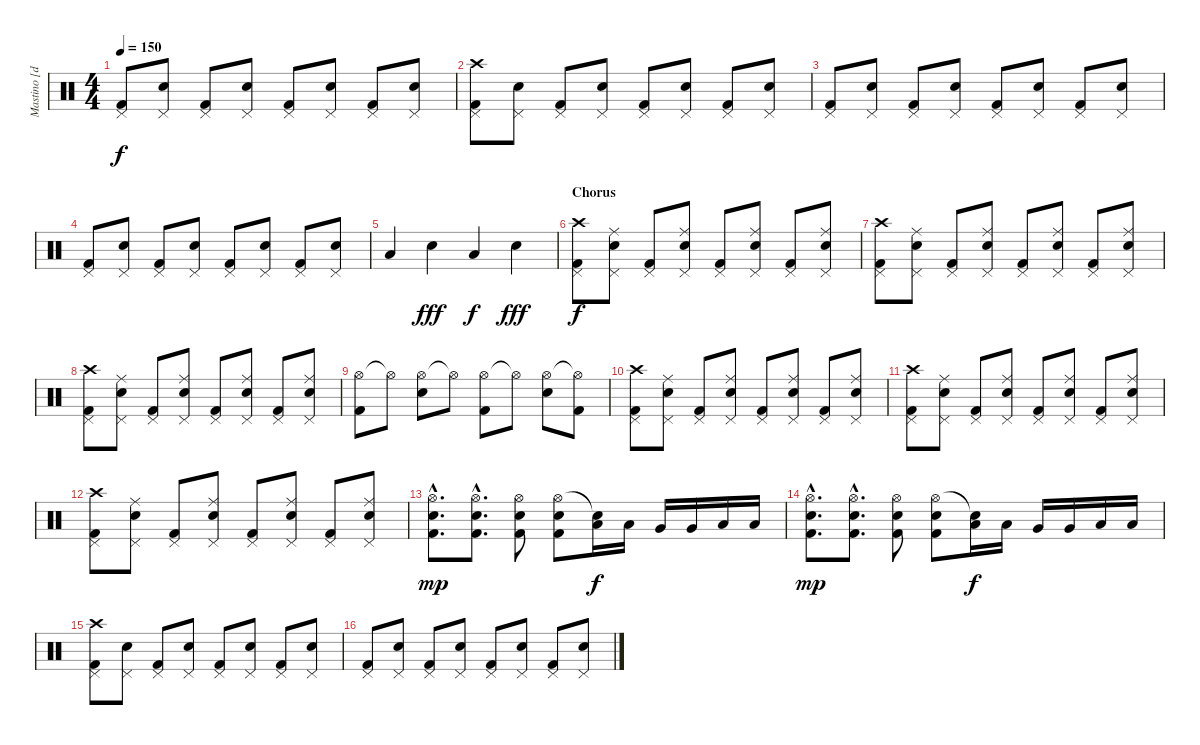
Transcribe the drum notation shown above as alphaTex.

\track ("Mastino [drums]" "Mastino [d") {instrument percussion}
\staff {score}
\articulation defaults
\ts (4 4)
\tempo 150
\clef neutral
\ks c
("Pedal Hi-Hat (hit)" "Kick (hit) 2").8{dy f} ("Pedal Hi-Hat (hit)" "Electric Snare (hit)").8 ("Pedal Hi-Hat (hit)" "Kick (hit) 2").8 ("Pedal Hi-Hat (hit)" "Electric Snare (hit)").8 ("Pedal Hi-Hat (hit)" "Kick (hit) 2").8 ("Pedal Hi-Hat (hit)" "Electric Snare (hit)").8 ("Pedal Hi-Hat (hit)" "Kick (hit) 2").8 ("Pedal Hi-Hat (hit)" "Electric Snare (hit)").8 |
("Crash high (hit)" "Pedal Hi-Hat (hit)" "Kick (hit) 2").8 ("Pedal Hi-Hat (hit)" "Electric Snare (hit)").8 ("Pedal Hi-Hat (hit)" "Kick (hit) 2").8 ("Pedal Hi-Hat (hit)" "Electric Snare (hit)").8 ("Pedal Hi-Hat (hit)" "Kick (hit) 2").8 ("Pedal Hi-Hat (hit)" "Electric Snare (hit)").8 ("Pedal Hi-Hat (hit)" "Kick (hit) 2").8 ("Pedal Hi-Hat (hit)" "Electric Snare (hit)").8 |
("Pedal Hi-Hat (hit)" "Kick (hit) 2").8 ("Pedal Hi-Hat (hit)" "Electric Snare (hit)").8 ("Pedal Hi-Hat (hit)" "Kick (hit) 2").8 ("Pedal Hi-Hat (hit)" "Electric Snare (hit)").8 ("Pedal Hi-Hat (hit)" "Kick (hit) 2").8 ("Pedal Hi-Hat (hit)" "Electric Snare (hit)").8 ("Pedal Hi-Hat (hit)" "Kick (hit) 2").8 ("Pedal Hi-Hat (hit)" "Electric Snare (hit)").8 |
("Pedal Hi-Hat (hit)" "Kick (hit) 2").8 ("Pedal Hi-Hat (hit)" "Electric Snare (hit)").8 ("Pedal Hi-Hat (hit)" "Kick (hit) 2").8 ("Pedal Hi-Hat (hit)" "Electric Snare (hit)").8 ("Pedal Hi-Hat (hit)" "Kick (hit) 2").8 ("Pedal Hi-Hat (hit)" "Electric Snare (hit)").8 ("Pedal Hi-Hat (hit)" "Kick (hit) 2").8 ("Pedal Hi-Hat (hit)" "Electric Snare (hit)").8 |
"Low Tom (hit)".4 "Electric Snare (hit)".4{dy fff} "Low Tom (hit)".4{dy f} "Electric Snare (hit)".4{dy fff} |
\section ("" "Chorus")
("Crash high (hit)" "Pedal Hi-Hat (hit)" "Kick (hit) 2").8{dy f} ("Ride (middle)" "Pedal Hi-Hat (hit)" "Electric Snare (hit)").8 ("Pedal Hi-Hat (hit)" "Kick (hit) 2").8 ("Ride (middle)" "Pedal Hi-Hat (hit)" "Electric Snare (hit)").8 ("Pedal Hi-Hat (hit)" "Kick (hit) 2").8 ("Ride (middle)" "Pedal Hi-Hat (hit)" "Electric Snare (hit)").8 ("Pedal Hi-Hat (hit)" "Kick (hit) 2").8 ("Ride (middle)" "Pedal Hi-Hat (hit)" "Electric Snare (hit)").8 |
("Crash high (hit)" "Pedal Hi-Hat (hit)" "Kick (hit) 2").8 ("Ride (middle)" "Pedal Hi-Hat (hit)" "Electric Snare (hit)").8 ("Pedal Hi-Hat (hit)" "Kick (hit) 2").8 ("Ride (middle)" "Pedal Hi-Hat (hit)" "Electric Snare (hit)").8 ("Pedal Hi-Hat (hit)" "Kick (hit) 2").8 ("Ride (middle)" "Pedal Hi-Hat (hit)" "Electric Snare (hit)").8 ("Pedal Hi-Hat (hit)" "Kick (hit) 2").8 ("Ride (middle)" "Pedal Hi-Hat (hit)" "Electric Snare (hit)").8 |
("Crash high (hit)" "Pedal Hi-Hat (hit)" "Kick (hit) 2").8 ("Ride (middle)" "Pedal Hi-Hat (hit)" "Electric Snare (hit)").8 ("Pedal Hi-Hat (hit)" "Kick (hit) 2").8 ("Ride (middle)" "Pedal Hi-Hat (hit)" "Electric Snare (hit)").8 ("Pedal Hi-Hat (hit)" "Kick (hit) 2").8 ("Ride (middle)" "Pedal Hi-Hat (hit)" "Electric Snare (hit)").8 ("Pedal Hi-Hat (hit)" "Kick (hit) 2").8 ("Ride (middle)" "Pedal Hi-Hat (hit)" "Electric Snare (hit)").8 |
("Hi-Hat (open)" "Kick (hit) 2").8 "Hi-Hat (open)"{t}.8 ("Hi-Hat (open)" "Electric Snare (hit)").8 "Hi-Hat (open)"{t}.8 ("Hi-Hat (open)" "Kick (hit) 2").8 "Hi-Hat (open)"{t}.8 ("Hi-Hat (open)" "Electric Snare (hit)").8 ("Hi-Hat (open)"{t} "Kick (hit) 2").8 |
("Crash high (hit)" "Pedal Hi-Hat (hit)" "Kick (hit) 2").8 ("Ride (middle)" "Pedal Hi-Hat (hit)" "Electric Snare (hit)").8 ("Pedal Hi-Hat (hit)" "Kick (hit) 2").8 ("Ride (middle)" "Pedal Hi-Hat (hit)" "Electric Snare (hit)").8 ("Pedal Hi-Hat (hit)" "Kick (hit) 2").8 ("Ride (middle)" "Pedal Hi-Hat (hit)" "Electric Snare (hit)").8 ("Pedal Hi-Hat (hit)" "Kick (hit) 2").8 ("Ride (middle)" "Pedal Hi-Hat (hit)" "Electric Snare (hit)").8 |
("Crash high (hit)" "Pedal Hi-Hat (hit)" "Kick (hit) 2").8 ("Ride (middle)" "Pedal Hi-Hat (hit)" "Electric Snare (hit)").8 ("Pedal Hi-Hat (hit)" "Kick (hit) 2").8 ("Ride (middle)" "Pedal Hi-Hat (hit)" "Electric Snare (hit)").8 ("Pedal Hi-Hat (hit)" "Kick (hit) 2").8 ("Ride (middle)" "Pedal Hi-Hat (hit)" "Electric Snare (hit)").8 ("Pedal Hi-Hat (hit)" "Kick (hit) 2").8 ("Ride (middle)" "Pedal Hi-Hat (hit)" "Electric Snare (hit)").8 |
("Crash high (hit)" "Pedal Hi-Hat (hit)" "Kick (hit) 2").8 ("Ride (middle)" "Pedal Hi-Hat (hit)" "Electric Snare (hit)").8 ("Pedal Hi-Hat (hit)" "Kick (hit) 2").8 ("Ride (middle)" "Pedal Hi-Hat (hit)" "Electric Snare (hit)").8 ("Pedal Hi-Hat (hit)" "Kick (hit) 2").8 ("Ride (middle)" "Pedal Hi-Hat (hit)" "Electric Snare (hit)").8 ("Pedal Hi-Hat (hit)" "Kick (hit) 2").8 ("Ride (middle)" "Pedal Hi-Hat (hit)" "Electric Snare (hit)").8 |
("Hi-Hat (open)"{hac} "Electric Snare (hit)"{hac} "Kick (hit) 2"{hac}).8{d dy mp} ("Hi-Hat (open)"{hac} "Electric Snare (hit)"{hac} "Kick (hit) 2"{hac}).8{d} ("Hi-Hat (open)" "Electric Snare (hit)" "Kick (hit) 2").8 ("Hi-Hat (open)" "Kick (hit) 2" "Electric Snare (hit)").8 ("Snare (hit)"{t} "Low Tom (hit)").16{dy f} "Low Tom (hit)".16 "Very Low Tom (hit)".16 "Very Low Tom (hit)".16 "Low Floor Tom (hit)".16 "Low Floor Tom (hit)".16 |
("Hi-Hat (open)"{hac} "Electric Snare (hit)"{hac} "Kick (hit) 2"{hac}).8{d dy mp} ("Hi-Hat (open)"{hac} "Electric Snare (hit)"{hac} "Kick (hit) 2"{hac}).8{d} ("Hi-Hat (open)" "Electric Snare (hit)" "Kick (hit) 2").8 ("Hi-Hat (open)" "Kick (hit) 2" "Electric Snare (hit)").8 ("Snare (hit)"{t} "Low Tom (hit)").16{dy f} "Low Tom (hit)".16 "Very Low Tom (hit)".16 "Very Low Tom (hit)".16 "Low Floor Tom (hit)".16 "Low Floor Tom (hit)".16 |
("Crash high (hit)" "Pedal Hi-Hat (hit)" "Kick (hit) 2").8 ("Pedal Hi-Hat (hit)" "Electric Snare (hit)").8 ("Pedal Hi-Hat (hit)" "Kick (hit) 2").8 ("Pedal Hi-Hat (hit)" "Electric Snare (hit)").8 ("Pedal Hi-Hat (hit)" "Kick (hit) 2").8 ("Pedal Hi-Hat (hit)" "Electric Snare (hit)").8 ("Pedal Hi-Hat (hit)" "Kick (hit) 2").8 ("Pedal Hi-Hat (hit)" "Electric Snare (hit)").8 |
("Pedal Hi-Hat (hit)" "Kick (hit) 2").8 ("Pedal Hi-Hat (hit)" "Electric Snare (hit)").8 ("Pedal Hi-Hat (hit)" "Kick (hit) 2").8 ("Pedal Hi-Hat (hit)" "Electric Snare (hit)").8 ("Pedal Hi-Hat (hit)" "Kick (hit) 2").8 ("Pedal Hi-Hat (hit)" "Electric Snare (hit)").8 ("Pedal Hi-Hat (hit)" "Kick (hit) 2").8 ("Pedal Hi-Hat (hit)" "Electric Snare (hit)").8
